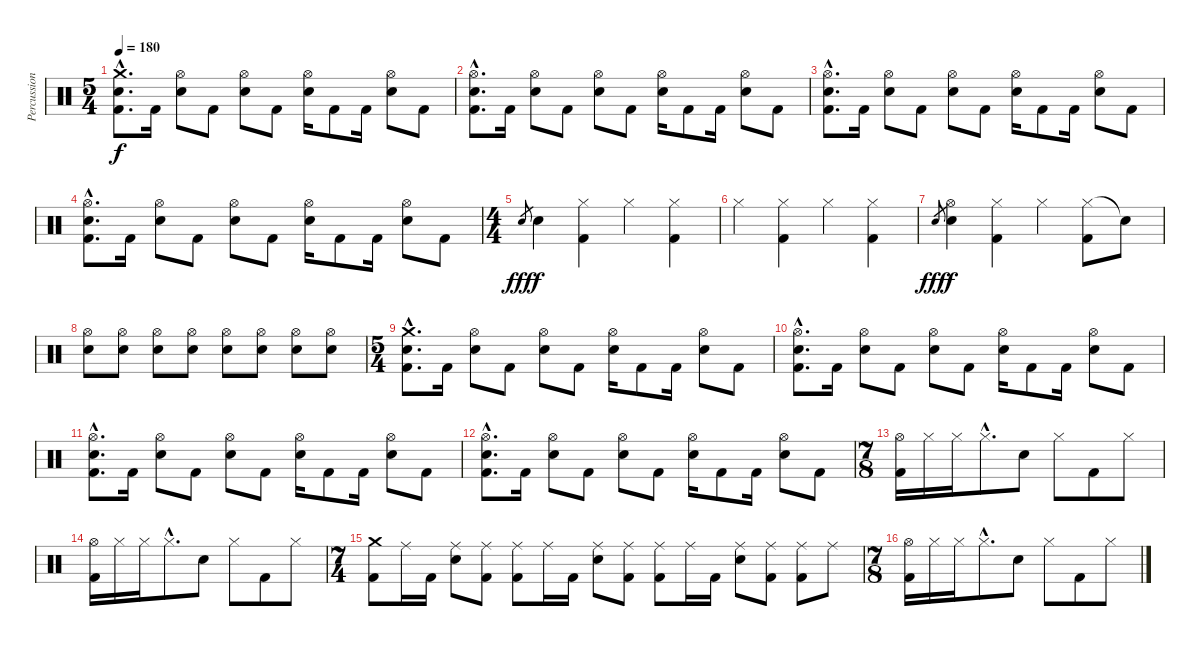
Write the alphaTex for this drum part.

\track ("Percussion" "Percussion") {instrument percussion}
\staff {score}
\articulation defaults
\ts (5 4)
\tempo 180
\clef neutral
\ks c
("Crash medium (hit)"{hac} "Electric Snare (hit)"{hac} "Kick (hit) 2"{hac}).8{d dy f} "Kick (hit) 2".16 ("Hi-Hat (open)" "Electric Snare (hit)").8 "Kick (hit) 2".8 ("Hi-Hat (open)" "Electric Snare (hit)").8 "Kick (hit) 2".8 ("Hi-Hat (open)" "Electric Snare (hit)").16 "Kick (hit) 2".8 "Kick (hit) 2".16 ("Hi-Hat (open)" "Electric Snare (hit)").8 "Kick (hit) 2".8 |
("Hi-Hat (open)"{hac} "Electric Snare (hit)"{hac} "Kick (hit) 2"{hac}).8{d} "Kick (hit) 2".16 ("Hi-Hat (open)" "Electric Snare (hit)").8 "Kick (hit) 2".8 ("Hi-Hat (open)" "Electric Snare (hit)").8 "Kick (hit) 2".8 ("Hi-Hat (open)" "Electric Snare (hit)").16 "Kick (hit) 2".8 "Kick (hit) 2".16 ("Hi-Hat (open)" "Electric Snare (hit)").8 "Kick (hit) 2".8 |
("Hi-Hat (open)"{hac} "Electric Snare (hit)"{hac} "Kick (hit) 2"{hac}).8{d} "Kick (hit) 2".16 ("Hi-Hat (open)" "Electric Snare (hit)").8 "Kick (hit) 2".8 ("Hi-Hat (open)" "Electric Snare (hit)").8 "Kick (hit) 2".8 ("Hi-Hat (open)" "Electric Snare (hit)").16 "Kick (hit) 2".8 "Kick (hit) 2".16 ("Hi-Hat (open)" "Electric Snare (hit)").8 "Kick (hit) 2".8 |
("Hi-Hat (open)"{hac} "Electric Snare (hit)"{hac} "Kick (hit) 2"{hac}).8{d} "Kick (hit) 2".16 ("Hi-Hat (open)" "Electric Snare (hit)").8 "Kick (hit) 2".8 ("Hi-Hat (open)" "Electric Snare (hit)").8 "Kick (hit) 2".8 ("Hi-Hat (open)" "Electric Snare (hit)").16 "Kick (hit) 2".8 "Kick (hit) 2".16 ("Hi-Hat (open)" "Electric Snare (hit)").8 "Kick (hit) 2".8 |
\ts (4 4)
"Electric Snare (hit)".8{gr dy fff} "Electric Snare (hit)".4{dy f} ("Hi-Hat (closed)" "Kick (hit) 2").4 "Hi-Hat (closed)".4 ("Hi-Hat (closed)" "Kick (hit) 2").4 |
"Hi-Hat (closed)".4 ("Hi-Hat (closed)" "Kick (hit) 2").4 "Hi-Hat (closed)".4 ("Hi-Hat (closed)" "Kick (hit) 2").4 |
"Electric Snare (hit)".8{gr dy fff} ("Hi-Hat (open)" "Electric Snare (hit)").4{dy f} ("Hi-Hat (closed)" "Kick (hit) 2").4 "Hi-Hat (closed)".4 ("Hi-Hat (closed)" "Kick (hit) 2").8 "Snare (hit)"{t}.8{volume 6} |
("Hi-Hat (open)" "Electric Snare (hit)").8{volume 13} ("Hi-Hat (open)" "Electric Snare (hit)").8 ("Hi-Hat (open)" "Electric Snare (hit)").8 ("Hi-Hat (open)" "Electric Snare (hit)").8 ("Hi-Hat (open)" "Electric Snare (hit)").8 ("Hi-Hat (open)" "Electric Snare (hit)").8 ("Hi-Hat (open)" "Electric Snare (hit)").8 ("Hi-Hat (open)" "Electric Snare (hit)").8 |
\ts (5 4)
("Crash medium (hit)"{hac} "Electric Snare (hit)"{hac} "Kick (hit) 2"{hac}).8{d} "Kick (hit) 2".16 ("Hi-Hat (open)" "Electric Snare (hit)").8 "Kick (hit) 2".8 ("Hi-Hat (open)" "Electric Snare (hit)").8 "Kick (hit) 2".8 ("Hi-Hat (open)" "Electric Snare (hit)").16 "Kick (hit) 2".8 "Kick (hit) 2".16 ("Hi-Hat (open)" "Electric Snare (hit)").8 "Kick (hit) 2".8 |
("Hi-Hat (open)"{hac} "Electric Snare (hit)"{hac} "Kick (hit) 2"{hac}).8{d} "Kick (hit) 2".16 ("Hi-Hat (open)" "Electric Snare (hit)").8 "Kick (hit) 2".8 ("Hi-Hat (open)" "Electric Snare (hit)").8 "Kick (hit) 2".8 ("Hi-Hat (open)" "Electric Snare (hit)").16 "Kick (hit) 2".8 "Kick (hit) 2".16 ("Hi-Hat (open)" "Electric Snare (hit)").8 "Kick (hit) 2".8 |
("Hi-Hat (open)"{hac} "Electric Snare (hit)"{hac} "Kick (hit) 2"{hac}).8{d} "Kick (hit) 2".16 ("Hi-Hat (open)" "Electric Snare (hit)").8 "Kick (hit) 2".8 ("Hi-Hat (open)" "Electric Snare (hit)").8 "Kick (hit) 2".8 ("Hi-Hat (open)" "Electric Snare (hit)").16 "Kick (hit) 2".8 "Kick (hit) 2".16 ("Hi-Hat (open)" "Electric Snare (hit)").8 "Kick (hit) 2".8 |
("Hi-Hat (open)"{hac} "Electric Snare (hit)"{hac} "Kick (hit) 2"{hac}).8{d} "Kick (hit) 2".16 ("Hi-Hat (open)" "Electric Snare (hit)").8 "Kick (hit) 2".8 ("Hi-Hat (open)" "Electric Snare (hit)").8 "Kick (hit) 2".8 ("Hi-Hat (open)" "Electric Snare (hit)").16 "Kick (hit) 2".8 "Kick (hit) 2".16 ("Hi-Hat (open)" "Electric Snare (hit)").8 "Kick (hit) 2".8 |
\ts (7 8)
("Hi-Hat (open)" "Kick (hit) 2").16 "Hi-Hat (closed)".16 "Hi-Hat (closed)".16 "Hi-Hat (closed)"{hac}.8{d} "Electric Snare (hit)".8 "Hi-Hat (closed)".8 "Kick (hit) 2".8 "Hi-Hat (closed)".8 |
("Hi-Hat (open)" "Kick (hit) 2").16 "Hi-Hat (closed)".16 "Hi-Hat (closed)".16 "Hi-Hat (closed)"{hac}.8{d} "Electric Snare (hit)".8 "Hi-Hat (closed)".8 "Kick (hit) 2".8 "Hi-Hat (closed)".8 |
\ts (7 4)
("Crash medium (hit)" "Kick (hit) 2").8 "Ride (middle)".16 "Kick (hit) 2".16 ("Ride (middle)" "Electric Snare (hit)").8 ("Ride (middle)" "Kick (hit) 2").8 ("Ride (middle)" "Kick (hit) 2").8 "Ride (middle)".16 "Kick (hit) 2".16 ("Ride (middle)" "Electric Snare (hit)").8 ("Ride (middle)" "Kick (hit) 2").8 ("Ride (middle)" "Kick (hit) 2").8 "Ride (middle)".16 "Kick (hit) 2".16 ("Ride (middle)" "Electric Snare (hit)").8 ("Ride (middle)" "Kick (hit) 2").8 ("Ride (middle)" "Kick (hit) 2").8 "Ride (middle)".8 |
\ts (7 8)
("Hi-Hat (open)" "Kick (hit) 2").16 "Hi-Hat (closed)".16 "Hi-Hat (closed)".16 "Hi-Hat (closed)"{hac}.8{d} "Electric Snare (hit)".8 "Hi-Hat (closed)".8 "Kick (hit) 2".8 "Hi-Hat (closed)".8
